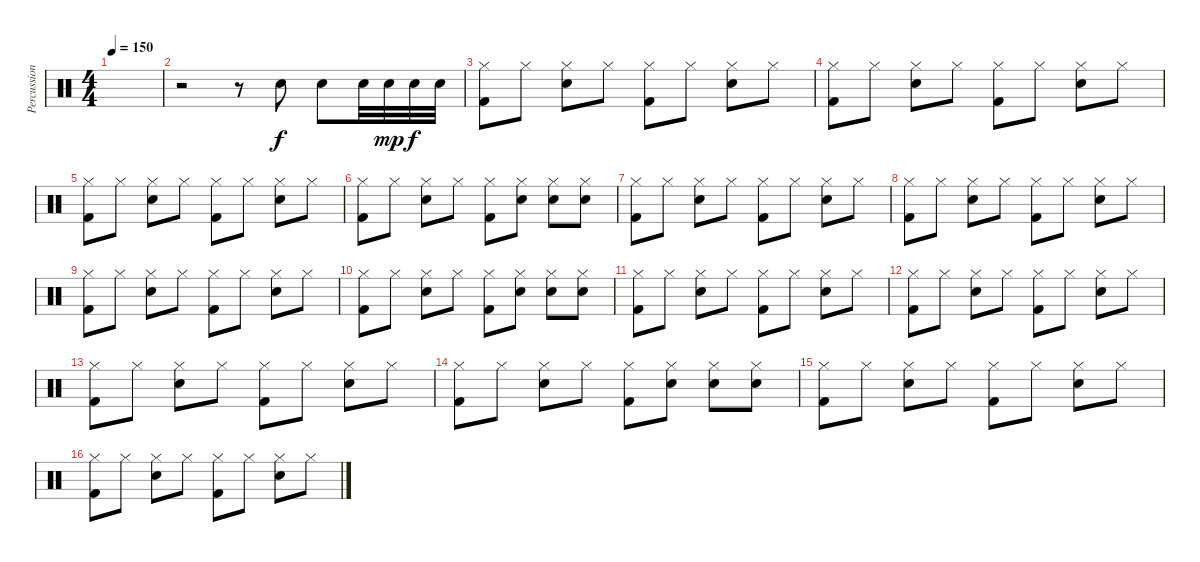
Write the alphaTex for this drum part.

\track ("Percussion" "Percussion") {instrument percussion}
\staff {score}
\articulation defaults
\ts (4 4)
\tempo 150
\clef neutral
\ks c
|
r.2 r.8 "Hand Clap (hit)".8 "Hand Clap (hit)".8 "Hand Clap (hit)".32 "Electric Snare (hit)".32{dy mp} "Electric Snare (hit)".32{dy f} "Electric Snare (hit)".32 |
("Hi-Hat (closed)" "Kick (hit) 2").8 "Hi-Hat (closed)".8 ("Hi-Hat (closed)" "Electric Snare (hit)").8 "Hi-Hat (closed)".8 ("Hi-Hat (closed)" "Kick (hit) 2").8 "Hi-Hat (closed)".8 ("Hi-Hat (closed)" "Electric Snare (hit)").8 "Hi-Hat (closed)".8 |
("Hi-Hat (closed)" "Kick (hit) 2").8 "Hi-Hat (closed)".8 ("Hi-Hat (closed)" "Electric Snare (hit)").8 "Hi-Hat (closed)".8 ("Hi-Hat (closed)" "Kick (hit) 2").8 "Hi-Hat (closed)".8 ("Hi-Hat (closed)" "Electric Snare (hit)").8 "Hi-Hat (closed)".8 |
("Hi-Hat (closed)" "Kick (hit) 2").8 "Hi-Hat (closed)".8 ("Hi-Hat (closed)" "Electric Snare (hit)").8 "Hi-Hat (closed)".8 ("Hi-Hat (closed)" "Kick (hit) 2").8 "Hi-Hat (closed)".8 ("Hi-Hat (closed)" "Electric Snare (hit)").8 "Hi-Hat (closed)".8 |
("Hi-Hat (closed)" "Kick (hit) 2").8 "Hi-Hat (closed)".8 ("Hi-Hat (closed)" "Electric Snare (hit)").8 "Hi-Hat (closed)".8 ("Hi-Hat (closed)" "Kick (hit) 2").8 ("Hi-Hat (closed)" "Hand Clap (hit)").8 ("Hi-Hat (closed)" "Electric Snare (hit)").8 ("Hi-Hat (closed)" "Hand Clap (hit)").8 |
("Hi-Hat (closed)" "Kick (hit) 2").8 "Hi-Hat (closed)".8 ("Hi-Hat (closed)" "Electric Snare (hit)").8 "Hi-Hat (closed)".8 ("Hi-Hat (closed)" "Kick (hit) 2").8 "Hi-Hat (closed)".8 ("Hi-Hat (closed)" "Electric Snare (hit)").8 "Hi-Hat (closed)".8 |
("Hi-Hat (closed)" "Kick (hit) 2").8 "Hi-Hat (closed)".8 ("Hi-Hat (closed)" "Electric Snare (hit)").8 "Hi-Hat (closed)".8 ("Hi-Hat (closed)" "Kick (hit) 2").8 "Hi-Hat (closed)".8 ("Hi-Hat (closed)" "Electric Snare (hit)").8 "Hi-Hat (closed)".8 |
("Hi-Hat (closed)" "Kick (hit) 2").8 "Hi-Hat (closed)".8 ("Hi-Hat (closed)" "Electric Snare (hit)").8 "Hi-Hat (closed)".8 ("Hi-Hat (closed)" "Kick (hit) 2").8 "Hi-Hat (closed)".8 ("Hi-Hat (closed)" "Electric Snare (hit)").8 "Hi-Hat (closed)".8 |
("Hi-Hat (closed)" "Kick (hit) 2").8 "Hi-Hat (closed)".8 ("Hi-Hat (closed)" "Electric Snare (hit)").8 "Hi-Hat (closed)".8 ("Hi-Hat (closed)" "Kick (hit) 2").8 ("Hi-Hat (closed)" "Hand Clap (hit)").8 ("Hi-Hat (closed)" "Electric Snare (hit)").8 ("Hi-Hat (closed)" "Hand Clap (hit)").8 |
("Hi-Hat (closed)" "Kick (hit) 2").8 "Hi-Hat (closed)".8 ("Hi-Hat (closed)" "Electric Snare (hit)").8 "Hi-Hat (closed)".8 ("Hi-Hat (closed)" "Kick (hit) 2").8 "Hi-Hat (closed)".8 ("Hi-Hat (closed)" "Electric Snare (hit)").8 "Hi-Hat (closed)".8 |
("Hi-Hat (closed)" "Kick (hit) 2").8 "Hi-Hat (closed)".8 ("Hi-Hat (closed)" "Electric Snare (hit)").8 "Hi-Hat (closed)".8 ("Hi-Hat (closed)" "Kick (hit) 2").8 "Hi-Hat (closed)".8 ("Hi-Hat (closed)" "Electric Snare (hit)").8 "Hi-Hat (closed)".8 |
("Hi-Hat (closed)" "Kick (hit) 2").8 "Hi-Hat (closed)".8 ("Hi-Hat (closed)" "Electric Snare (hit)").8 "Hi-Hat (closed)".8 ("Hi-Hat (closed)" "Kick (hit) 2").8 "Hi-Hat (closed)".8 ("Hi-Hat (closed)" "Electric Snare (hit)").8 "Hi-Hat (closed)".8 |
("Hi-Hat (closed)" "Kick (hit) 2").8 "Hi-Hat (closed)".8 ("Hi-Hat (closed)" "Electric Snare (hit)").8 "Hi-Hat (closed)".8 ("Hi-Hat (closed)" "Kick (hit) 2").8 ("Hi-Hat (closed)" "Hand Clap (hit)").8 ("Hi-Hat (closed)" "Electric Snare (hit)").8 ("Hi-Hat (closed)" "Hand Clap (hit)").8 |
("Hi-Hat (closed)" "Kick (hit) 2").8 "Hi-Hat (closed)".8 ("Hi-Hat (closed)" "Electric Snare (hit)").8 "Hi-Hat (closed)".8 ("Hi-Hat (closed)" "Kick (hit) 2").8 "Hi-Hat (closed)".8 ("Hi-Hat (closed)" "Electric Snare (hit)").8 "Hi-Hat (closed)".8 |
("Hi-Hat (closed)" "Kick (hit) 2").8 "Hi-Hat (closed)".8 ("Hi-Hat (closed)" "Electric Snare (hit)").8 "Hi-Hat (closed)".8 ("Hi-Hat (closed)" "Kick (hit) 2").8 "Hi-Hat (closed)".8 ("Hi-Hat (closed)" "Electric Snare (hit)").8 "Hi-Hat (closed)".8
